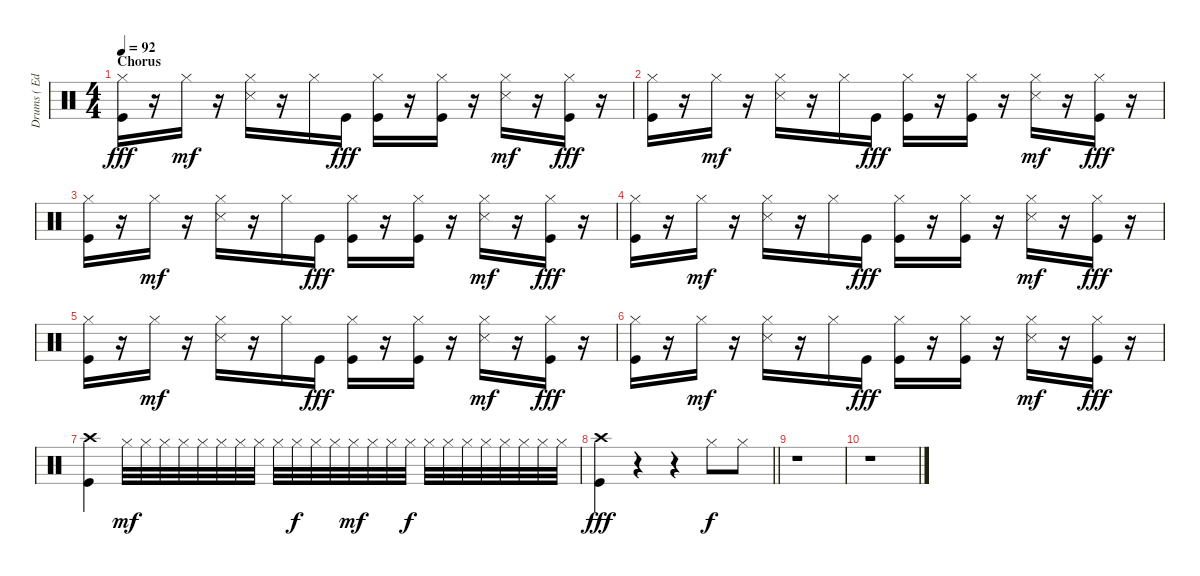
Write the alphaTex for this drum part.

\track ("Drums ( Edward O'Brien )" "Drums ( Ed") {instrument percussion}
\staff {score}
\articulation defaults
\ts (4 4)
\section ("" "Chorus")
\tempo 92
\clef neutral
\ks c
("Hi-Hat (closed)" "Kick (hit)").16{dy fff} r.16 "Hi-Hat (closed)".16{dy mf} r.16 ("Hi-Hat (closed)" "Snare (side stick) 3").16 r.16 "Hi-Hat (closed)".16 "Kick (hit)".16{dy fff} ("Hi-Hat (closed)" "Kick (hit)").16 r.16 ("Hi-Hat (closed)" "Kick (hit)").16 r.16 ("Hi-Hat (closed)" "Snare (side stick) 3").16{dy mf} r.16 ("Hi-Hat (closed)" "Kick (hit)").16{dy fff} r.16 |
("Hi-Hat (closed)" "Kick (hit)").16 r.16 "Hi-Hat (closed)".16{dy mf} r.16 ("Hi-Hat (closed)" "Snare (side stick) 3").16 r.16 "Hi-Hat (closed)".16 "Kick (hit)".16{dy fff} ("Hi-Hat (closed)" "Kick (hit)").16 r.16 ("Hi-Hat (closed)" "Kick (hit)").16 r.16 ("Hi-Hat (closed)" "Snare (side stick) 3").16{dy mf} r.16 ("Hi-Hat (closed)" "Kick (hit)").16{dy fff} r.16 |
("Hi-Hat (closed)" "Kick (hit)").16 r.16 "Hi-Hat (closed)".16{dy mf} r.16 ("Hi-Hat (closed)" "Snare (side stick) 3").16 r.16 "Hi-Hat (closed)".16 "Kick (hit)".16{dy fff} ("Hi-Hat (closed)" "Kick (hit)").16 r.16 ("Hi-Hat (closed)" "Kick (hit)").16 r.16 ("Hi-Hat (closed)" "Snare (side stick) 3").16{dy mf} r.16 ("Hi-Hat (closed)" "Kick (hit)").16{dy fff} r.16 |
("Hi-Hat (closed)" "Kick (hit)").16 r.16 "Hi-Hat (closed)".16{dy mf} r.16 ("Hi-Hat (closed)" "Snare (side stick) 3").16 r.16 "Hi-Hat (closed)".16 "Kick (hit)".16{dy fff} ("Hi-Hat (closed)" "Kick (hit)").16 r.16 ("Hi-Hat (closed)" "Kick (hit)").16 r.16 ("Hi-Hat (closed)" "Snare (side stick) 3").16{dy mf} r.16 ("Hi-Hat (closed)" "Kick (hit)").16{dy fff} r.16 |
("Hi-Hat (closed)" "Kick (hit)").16 r.16 "Hi-Hat (closed)".16{dy mf} r.16 ("Hi-Hat (closed)" "Snare (side stick) 3").16 r.16 "Hi-Hat (closed)".16 "Kick (hit)".16{dy fff} ("Hi-Hat (closed)" "Kick (hit)").16 r.16 ("Hi-Hat (closed)" "Kick (hit)").16 r.16 ("Hi-Hat (closed)" "Snare (side stick) 3").16{dy mf} r.16 ("Hi-Hat (closed)" "Kick (hit)").16{dy fff} r.16 |
("Hi-Hat (closed)" "Kick (hit)").16 r.16 "Hi-Hat (closed)".16{dy mf} r.16 ("Hi-Hat (closed)" "Snare (side stick) 3").16 r.16 "Hi-Hat (closed)".16 "Kick (hit)".16{dy fff} ("Hi-Hat (closed)" "Kick (hit)").16 r.16 ("Hi-Hat (closed)" "Kick (hit)").16 r.16 ("Hi-Hat (closed)" "Snare (side stick) 3").16{dy mf} r.16 ("Hi-Hat (closed)" "Kick (hit)").16{dy fff} r.16 |
("Crash high (hit)" "Kick (hit)").4 "Hi-Hat (closed)".32{dy mf} "Hi-Hat (closed)".32 "Hi-Hat (closed)".32 "Hi-Hat (closed)".32 "Hi-Hat (closed)".32 "Hi-Hat (closed)".32 "Hi-Hat (closed)".32 "Hi-Hat (closed)".32 "Hi-Hat (closed)".32 "Hi-Hat (closed)".32{dy f} "Hi-Hat (closed)".32 "Hi-Hat (closed)".32 "Hi-Hat (closed)".32{dy mf} "Hi-Hat (closed)".32 "Hi-Hat (closed)".32 "Hi-Hat (closed)".32{dy f} "Hi-Hat (closed)".32 "Hi-Hat (closed)".32 "Hi-Hat (closed)".32 "Hi-Hat (closed)".32 "Hi-Hat (closed)".32 "Hi-Hat (closed)".32 "Hi-Hat (closed)".32 "Hi-Hat (closed)".32 |
\barLineRight lightlight
("Crash high (hit)" "Kick (hit)").4{dy fff} r.4 r.4 "Hi-Hat (closed)".8{dy f} "Hi-Hat (closed)".8 |
r.1 |
r.1
